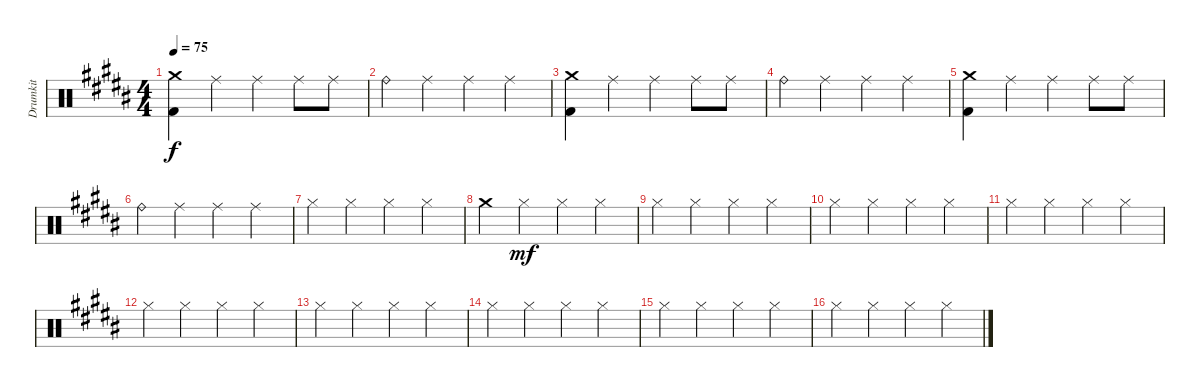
\track ("Drumkit" "Drumkit") {instrument percussion}
\staff {score}
\articulation defaults
\ts (4 4)
\tempo 75
\clef neutral
\ks b
("Crash medium (hit)" "Kick (hit) 2").4{dy f} "Ride (middle)".4 "Ride (middle)".4 "Ride (middle)".8 "Ride (middle)".8 |
"Ride (bell)".4 "Ride (middle)".4 "Ride (middle)".4 "Ride (middle)".4 |
("Crash medium (hit)" "Kick (hit) 2").4 "Ride (middle)".4 "Ride (middle)".4 "Ride (middle)".8 "Ride (middle)".8 |
"Ride (bell)".4 "Ride (middle)".4 "Ride (middle)".4 "Ride (middle)".4 |
("Crash medium (hit)" "Kick (hit) 2").4 "Ride (middle)".4 "Ride (middle)".4 "Ride (middle)".8 "Ride (middle)".8 |
"Ride (bell)".4 "Ride (middle)".4 "Ride (middle)".4 "Ride (middle)".4 |
"Hi-Hat (closed)".4 "Hi-Hat (closed)".4 "Hi-Hat (closed)".4 "Hi-Hat (closed)".4 |
"Crash medium (hit)".4 "Hi-Hat (closed)".4{dy mf} "Hi-Hat (closed)".4 "Hi-Hat (closed)".4 |
"Hi-Hat (closed)".4 "Hi-Hat (closed)".4 "Hi-Hat (closed)".4 "Hi-Hat (closed)".4 |
"Hi-Hat (closed)".4 "Hi-Hat (closed)".4 "Hi-Hat (closed)".4 "Hi-Hat (closed)".4 |
"Hi-Hat (closed)".4 "Hi-Hat (closed)".4 "Hi-Hat (closed)".4 "Hi-Hat (closed)".4 |
"Hi-Hat (closed)".4 "Hi-Hat (closed)".4 "Hi-Hat (closed)".4 "Hi-Hat (closed)".4 |
"Hi-Hat (closed)".4 "Hi-Hat (closed)".4 "Hi-Hat (closed)".4 "Hi-Hat (closed)".4 |
"Hi-Hat (closed)".4 "Hi-Hat (closed)".4 "Hi-Hat (closed)".4 "Hi-Hat (closed)".4 |
"Hi-Hat (closed)".4 "Hi-Hat (closed)".4 "Hi-Hat (closed)".4 "Hi-Hat (closed)".4 |
"Hi-Hat (closed)".4 "Hi-Hat (closed)".4 "Hi-Hat (closed)".4 "Hi-Hat (closed)".4
